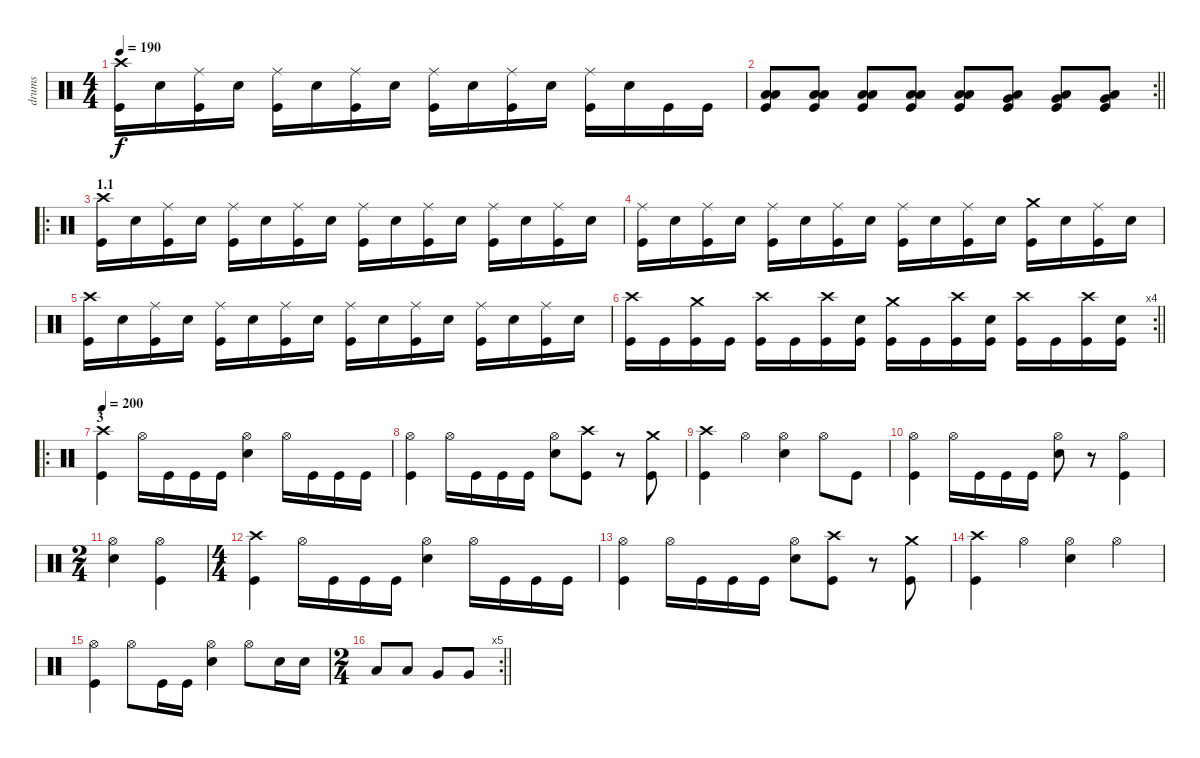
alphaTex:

\track ("drums" "drums") {instrument percussion}
\staff {score}
\articulation defaults
\ts (4 4)
\tempo 190
\clef neutral
\ks c
("Kick (hit)" "Crash high (hit)").16{dy f} "Electric Snare (hit)".16 ("Kick (hit)" "Ride (middle)").16 "Electric Snare (hit)".16 ("Kick (hit)" "Ride (middle)").16 "Electric Snare (hit)".16 ("Kick (hit)" "Ride (middle)").16 "Electric Snare (hit)".16 ("Kick (hit)" "Ride (middle)").16 "Electric Snare (hit)".16 ("Kick (hit)" "Ride (middle)").16 "Electric Snare (hit)".16 ("Kick (hit)" "Ride (middle)").16 "Electric Snare (hit)".16 "Kick (hit)".16 "Kick (hit)".16 |
\rc 2
\barLineRight lightlight
("Kick (hit)" "Low Tom (hit)" "Low Floor Tom (hit)").8 ("Kick (hit)" "Low Tom (hit)" "Low Floor Tom (hit)").8 ("Kick (hit)" "Low Tom (hit)" "Low Floor Tom (hit)").8 ("Kick (hit)" "Low Tom (hit)" "Low Floor Tom (hit)").8 ("Kick (hit)" "Low Tom (hit)" "Low Floor Tom (hit)").8 ("Kick (hit)" "Very Low Tom (hit)" "Low Floor Tom (hit)").8 ("Kick (hit)" "Very Low Tom (hit)" "Low Floor Tom (hit)").8 ("Kick (hit)" "Very Low Tom (hit)" "Low Floor Tom (hit)").8 |
\ro
\section ("" "1.1")
("Kick (hit)" "Crash high (hit)").16 "Electric Snare (hit)".16 ("Kick (hit)" "Ride (middle)").16 "Electric Snare (hit)".16 ("Kick (hit)" "Ride (middle)").16 "Electric Snare (hit)".16 ("Kick (hit)" "Ride (middle)").16 "Electric Snare (hit)".16 ("Kick (hit)" "Ride (middle)").16 "Electric Snare (hit)".16 ("Kick (hit)" "Ride (middle)").16 "Electric Snare (hit)".16 ("Kick (hit)" "Ride (middle)").16 "Electric Snare (hit)".16 ("Kick (hit)" "Ride (middle)").16 "Electric Snare (hit)".16 |
("Kick (hit)" "Ride (middle)").16 "Electric Snare (hit)".16 ("Kick (hit)" "Ride (middle)").16 "Electric Snare (hit)".16 ("Kick (hit)" "Ride (middle)").16 "Electric Snare (hit)".16 ("Kick (hit)" "Ride (middle)").16 "Electric Snare (hit)".16 ("Kick (hit)" "Ride (middle)").16 "Electric Snare (hit)".16 ("Kick (hit)" "Ride (middle)").16 "Electric Snare (hit)".16 ("Kick (hit)" "Crash medium (hit)").16 "Electric Snare (hit)".16 ("Kick (hit)" "Ride (middle)").16 "Electric Snare (hit)".16 |
("Kick (hit)" "Crash high (hit)").16 "Electric Snare (hit)".16 ("Kick (hit)" "Ride (middle)").16 "Electric Snare (hit)".16 ("Kick (hit)" "Ride (middle)").16 "Electric Snare (hit)".16 ("Kick (hit)" "Ride (middle)").16 "Electric Snare (hit)".16 ("Kick (hit)" "Ride (middle)").16 "Electric Snare (hit)".16 ("Kick (hit)" "Ride (middle)").16 "Electric Snare (hit)".16 ("Kick (hit)" "Ride (middle)").16 "Electric Snare (hit)".16 ("Kick (hit)" "Ride (middle)").16 "Electric Snare (hit)".16 |
\rc 4
\barLineRight lightlight
("Kick (hit)" "Crash high (hit)").16 "Kick (hit)".16 ("Kick (hit)" "Crash medium (hit)").16 "Kick (hit)".16 ("Kick (hit)" "Crash high (hit)").16 "Kick (hit)".16 ("Kick (hit)" "Crash high (hit)").16 ("Kick (hit)" "Electric Snare (hit)").16 ("Kick (hit)" "Crash medium (hit)").16 "Kick (hit)".16 ("Kick (hit)" "Crash high (hit)").16 ("Kick (hit)" "Electric Snare (hit)").16 ("Kick (hit)" "Crash high (hit)").16 "Kick (hit)".16 ("Kick (hit)" "Crash high (hit)").16 ("Kick (hit)" "Electric Snare (hit)").16 |
\ro
\section ("" "3")
\tempo 200
("Kick (hit)" "Crash high (hit)").4 "Hi-Hat (open)".16 "Kick (hit)".16 "Kick (hit)".16 "Kick (hit)".16 ("Electric Snare (hit)" "Hi-Hat (open)").4 "Hi-Hat (open)".16 "Kick (hit)".16 "Kick (hit)".16 "Kick (hit)".16 |
("Kick (hit)" "Hi-Hat (open)").4 "Hi-Hat (open)".16 "Kick (hit)".16 "Kick (hit)".16 "Kick (hit)".16 ("Electric Snare (hit)" "Hi-Hat (open)").8 ("Kick (hit)" "Crash high (hit)").8 r.8 ("Kick (hit)" "Crash medium (hit)").8 |
("Kick (hit)" "Crash high (hit)").4 "Hi-Hat (open)".4 ("Electric Snare (hit)" "Hi-Hat (open)").4 "Hi-Hat (open)".8 "Kick (hit)".8 |
("Kick (hit)" "Hi-Hat (open)").4 "Hi-Hat (open)".16 "Kick (hit)".16 "Kick (hit)".16 "Kick (hit)".16 ("Electric Snare (hit)" "Hi-Hat (open)").8 r.8 ("Kick (hit)" "Hi-Hat (open)").4 |
\ts (2 4)
("Electric Snare (hit)" "Hi-Hat (open)").4 ("Kick (hit)" "Hi-Hat (open)").4 |
\ts (4 4)
("Kick (hit)" "Crash high (hit)").4 "Hi-Hat (open)".16 "Kick (hit)".16 "Kick (hit)".16 "Kick (hit)".16 ("Electric Snare (hit)" "Hi-Hat (open)").4 "Hi-Hat (open)".16 "Kick (hit)".16 "Kick (hit)".16 "Kick (hit)".16 |
("Kick (hit)" "Hi-Hat (open)").4 "Hi-Hat (open)".16 "Kick (hit)".16 "Kick (hit)".16 "Kick (hit)".16 ("Electric Snare (hit)" "Hi-Hat (open)").8 ("Kick (hit)" "Crash high (hit)").8 r.8 ("Kick (hit)" "Crash medium (hit)").8 |
("Kick (hit)" "Crash high (hit)").4 "Hi-Hat (open)".4 ("Electric Snare (hit)" "Hi-Hat (open)").4 "Hi-Hat (open)".4 |
("Kick (hit)" "Hi-Hat (open)").4 "Hi-Hat (open)".8 "Kick (hit)".16 "Kick (hit)".16 ("Electric Snare (hit)" "Hi-Hat (open)").4 "Hi-Hat (open)".8 "Electric Snare (hit)".16 "Electric Snare (hit)".16 |
\rc 5
\ts (2 4)
\barLineRight lightlight "Low Tom (hit)".8 "Low Tom (hit)".8 "Very Low Tom (hit)".8 "Very Low Tom (hit)".8
